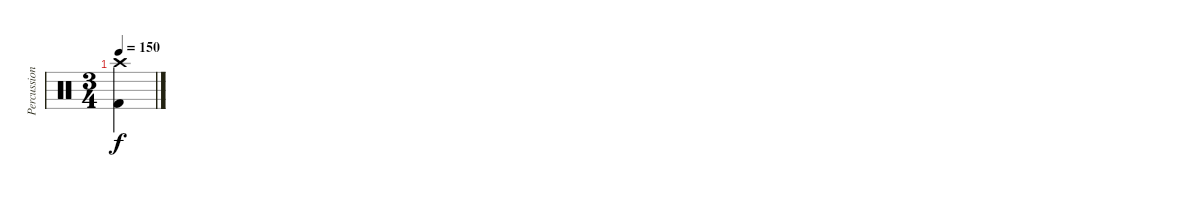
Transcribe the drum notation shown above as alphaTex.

\track ("Percussion" "Percussion") {instrument percussion}
\staff {score}
\articulation defaults
\ts (3 4)
\tempo 150
\clef neutral
\ks c
("Crash high (hit)" "Kick (hit) 2").4{dy f}
